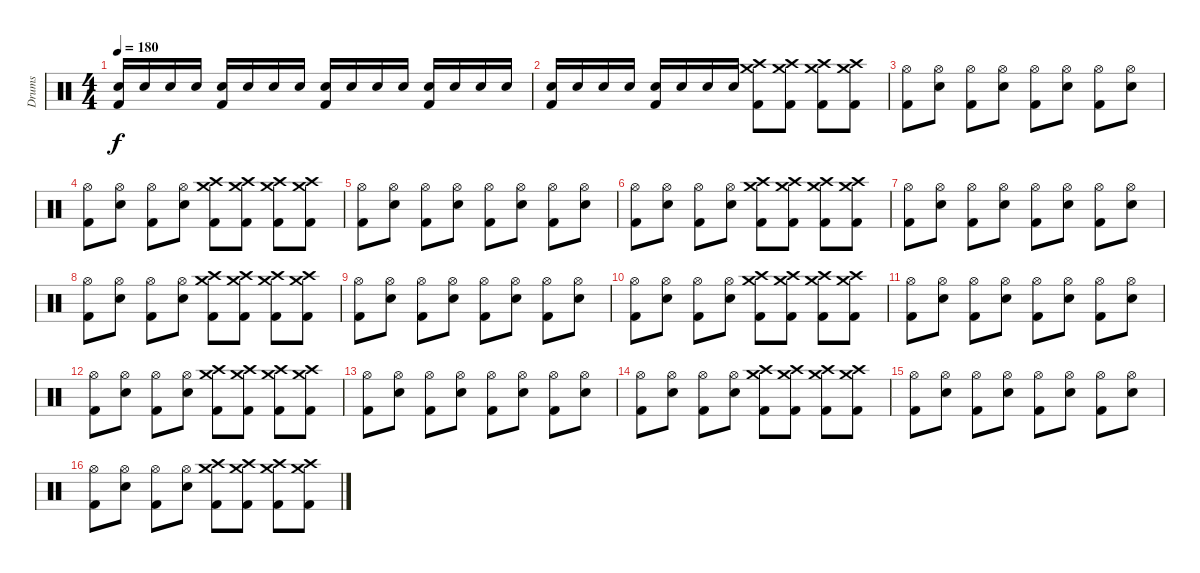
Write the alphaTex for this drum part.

\track ("Drums" "Drums") {instrument percussion}
\staff {score}
\articulation defaults
\ts (4 4)
\tempo 180
\clef neutral
\ks c
("Snare (hit) 2" "Kick (hit) 2").16{dy f} "Snare (hit) 2".16 "Snare (hit) 2".16 "Snare (hit) 2".16 ("Snare (hit) 2" "Kick (hit) 2").16 "Snare (hit) 2".16 "Snare (hit) 2".16 "Snare (hit) 2".16 ("Snare (hit) 2" "Kick (hit) 2").16 "Snare (hit) 2".16 "Snare (hit) 2".16 "Snare (hit) 2".16 ("Snare (hit) 2" "Kick (hit) 2").16 "Snare (hit) 2".16 "Snare (hit) 2".16 "Snare (hit) 2".16 |
("Snare (hit) 2" "Kick (hit) 2").16 "Snare (hit) 2".16 "Snare (hit) 2".16 "Snare (hit) 2".16 ("Snare (hit) 2" "Kick (hit) 2").16 "Snare (hit) 2".16 "Snare (hit) 2".16 "Snare (hit) 2".16 ("Crash high (hit)" "Crash medium (hit)" "Kick (hit) 2").8 ("Crash high (hit)" "Crash medium (hit)" "Kick (hit) 2").8 ("Crash high (hit)" "Crash medium (hit)" "Kick (hit) 2").8 ("Crash high (hit)" "Crash medium (hit)" "Kick (hit) 2").8 |
("Hi-Hat (open)" "Kick (hit) 2").8 ("Hi-Hat (open)" "Snare (hit) 2").8 ("Hi-Hat (open)" "Kick (hit) 2").8 ("Hi-Hat (open)" "Snare (hit) 2").8 ("Hi-Hat (open)" "Kick (hit) 2").8 ("Hi-Hat (open)" "Snare (hit) 2").8 ("Hi-Hat (open)" "Kick (hit) 2").8 ("Hi-Hat (open)" "Snare (hit) 2").8 |
("Hi-Hat (open)" "Kick (hit) 2").8 ("Hi-Hat (open)" "Snare (hit) 2").8 ("Hi-Hat (open)" "Kick (hit) 2").8 ("Hi-Hat (open)" "Snare (hit) 2").8 ("Crash high (hit)" "Crash medium (hit)" "Kick (hit) 2").8 ("Crash high (hit)" "Crash medium (hit)" "Kick (hit) 2").8 ("Crash high (hit)" "Crash medium (hit)" "Kick (hit) 2").8 ("Crash high (hit)" "Crash medium (hit)" "Kick (hit) 2").8 |
("Hi-Hat (open)" "Kick (hit) 2").8 ("Hi-Hat (open)" "Snare (hit) 2").8 ("Hi-Hat (open)" "Kick (hit) 2").8 ("Hi-Hat (open)" "Snare (hit) 2").8 ("Hi-Hat (open)" "Kick (hit) 2").8 ("Hi-Hat (open)" "Snare (hit) 2").8 ("Hi-Hat (open)" "Kick (hit) 2").8 ("Hi-Hat (open)" "Snare (hit) 2").8 |
("Hi-Hat (open)" "Kick (hit) 2").8 ("Hi-Hat (open)" "Snare (hit) 2").8 ("Hi-Hat (open)" "Kick (hit) 2").8 ("Hi-Hat (open)" "Snare (hit) 2").8 ("Crash high (hit)" "Crash medium (hit)" "Kick (hit) 2").8 ("Crash high (hit)" "Crash medium (hit)" "Kick (hit) 2").8 ("Crash high (hit)" "Crash medium (hit)" "Kick (hit) 2").8 ("Crash high (hit)" "Crash medium (hit)" "Kick (hit) 2").8 |
("Hi-Hat (open)" "Kick (hit) 2").8 ("Hi-Hat (open)" "Snare (hit) 2").8 ("Hi-Hat (open)" "Kick (hit) 2").8 ("Hi-Hat (open)" "Snare (hit) 2").8 ("Hi-Hat (open)" "Kick (hit) 2").8 ("Hi-Hat (open)" "Snare (hit) 2").8 ("Hi-Hat (open)" "Kick (hit) 2").8 ("Hi-Hat (open)" "Snare (hit) 2").8 |
("Hi-Hat (open)" "Kick (hit) 2").8 ("Hi-Hat (open)" "Snare (hit) 2").8 ("Hi-Hat (open)" "Kick (hit) 2").8 ("Hi-Hat (open)" "Snare (hit) 2").8 ("Crash high (hit)" "Crash medium (hit)" "Kick (hit) 2").8 ("Crash high (hit)" "Crash medium (hit)" "Kick (hit) 2").8 ("Crash high (hit)" "Crash medium (hit)" "Kick (hit) 2").8 ("Crash high (hit)" "Crash medium (hit)" "Kick (hit) 2").8 |
("Hi-Hat (open)" "Kick (hit) 2").8 ("Hi-Hat (open)" "Snare (hit) 2").8 ("Hi-Hat (open)" "Kick (hit) 2").8 ("Hi-Hat (open)" "Snare (hit) 2").8 ("Hi-Hat (open)" "Kick (hit) 2").8 ("Hi-Hat (open)" "Snare (hit) 2").8 ("Hi-Hat (open)" "Kick (hit) 2").8 ("Hi-Hat (open)" "Snare (hit) 2").8 |
("Hi-Hat (open)" "Kick (hit) 2").8 ("Hi-Hat (open)" "Snare (hit) 2").8 ("Hi-Hat (open)" "Kick (hit) 2").8 ("Hi-Hat (open)" "Snare (hit) 2").8 ("Crash high (hit)" "Crash medium (hit)" "Kick (hit) 2").8 ("Crash high (hit)" "Crash medium (hit)" "Kick (hit) 2").8 ("Crash high (hit)" "Crash medium (hit)" "Kick (hit) 2").8 ("Crash high (hit)" "Crash medium (hit)" "Kick (hit) 2").8 |
("Hi-Hat (open)" "Kick (hit) 2").8 ("Hi-Hat (open)" "Snare (hit) 2").8 ("Hi-Hat (open)" "Kick (hit) 2").8 ("Hi-Hat (open)" "Snare (hit) 2").8 ("Hi-Hat (open)" "Kick (hit) 2").8 ("Hi-Hat (open)" "Snare (hit) 2").8 ("Hi-Hat (open)" "Kick (hit) 2").8 ("Hi-Hat (open)" "Snare (hit) 2").8 |
("Hi-Hat (open)" "Kick (hit) 2").8 ("Hi-Hat (open)" "Snare (hit) 2").8 ("Hi-Hat (open)" "Kick (hit) 2").8 ("Hi-Hat (open)" "Snare (hit) 2").8 ("Crash high (hit)" "Crash medium (hit)" "Kick (hit) 2").8 ("Crash high (hit)" "Crash medium (hit)" "Kick (hit) 2").8 ("Crash high (hit)" "Crash medium (hit)" "Kick (hit) 2").8 ("Crash high (hit)" "Crash medium (hit)" "Kick (hit) 2").8 |
("Hi-Hat (open)" "Kick (hit) 2").8 ("Hi-Hat (open)" "Snare (hit) 2").8 ("Hi-Hat (open)" "Kick (hit) 2").8 ("Hi-Hat (open)" "Snare (hit) 2").8 ("Hi-Hat (open)" "Kick (hit) 2").8 ("Hi-Hat (open)" "Snare (hit) 2").8 ("Hi-Hat (open)" "Kick (hit) 2").8 ("Hi-Hat (open)" "Snare (hit) 2").8 |
("Hi-Hat (open)" "Kick (hit) 2").8 ("Hi-Hat (open)" "Snare (hit) 2").8 ("Hi-Hat (open)" "Kick (hit) 2").8 ("Hi-Hat (open)" "Snare (hit) 2").8 ("Crash high (hit)" "Crash medium (hit)" "Kick (hit) 2").8 ("Crash high (hit)" "Crash medium (hit)" "Kick (hit) 2").8 ("Crash high (hit)" "Crash medium (hit)" "Kick (hit) 2").8 ("Crash high (hit)" "Crash medium (hit)" "Kick (hit) 2").8 |
("Hi-Hat (open)" "Kick (hit) 2").8 ("Hi-Hat (open)" "Snare (hit) 2").8 ("Hi-Hat (open)" "Kick (hit) 2").8 ("Hi-Hat (open)" "Snare (hit) 2").8 ("Hi-Hat (open)" "Kick (hit) 2").8 ("Hi-Hat (open)" "Snare (hit) 2").8 ("Hi-Hat (open)" "Kick (hit) 2").8 ("Hi-Hat (open)" "Snare (hit) 2").8 |
("Hi-Hat (open)" "Kick (hit) 2").8 ("Hi-Hat (open)" "Snare (hit) 2").8 ("Hi-Hat (open)" "Kick (hit) 2").8 ("Hi-Hat (open)" "Snare (hit) 2").8 ("Crash high (hit)" "Crash medium (hit)" "Kick (hit) 2").8 ("Crash high (hit)" "Crash medium (hit)" "Kick (hit) 2").8 ("Crash high (hit)" "Crash medium (hit)" "Kick (hit) 2").8 ("Crash high (hit)" "Crash medium (hit)" "Kick (hit) 2").8
